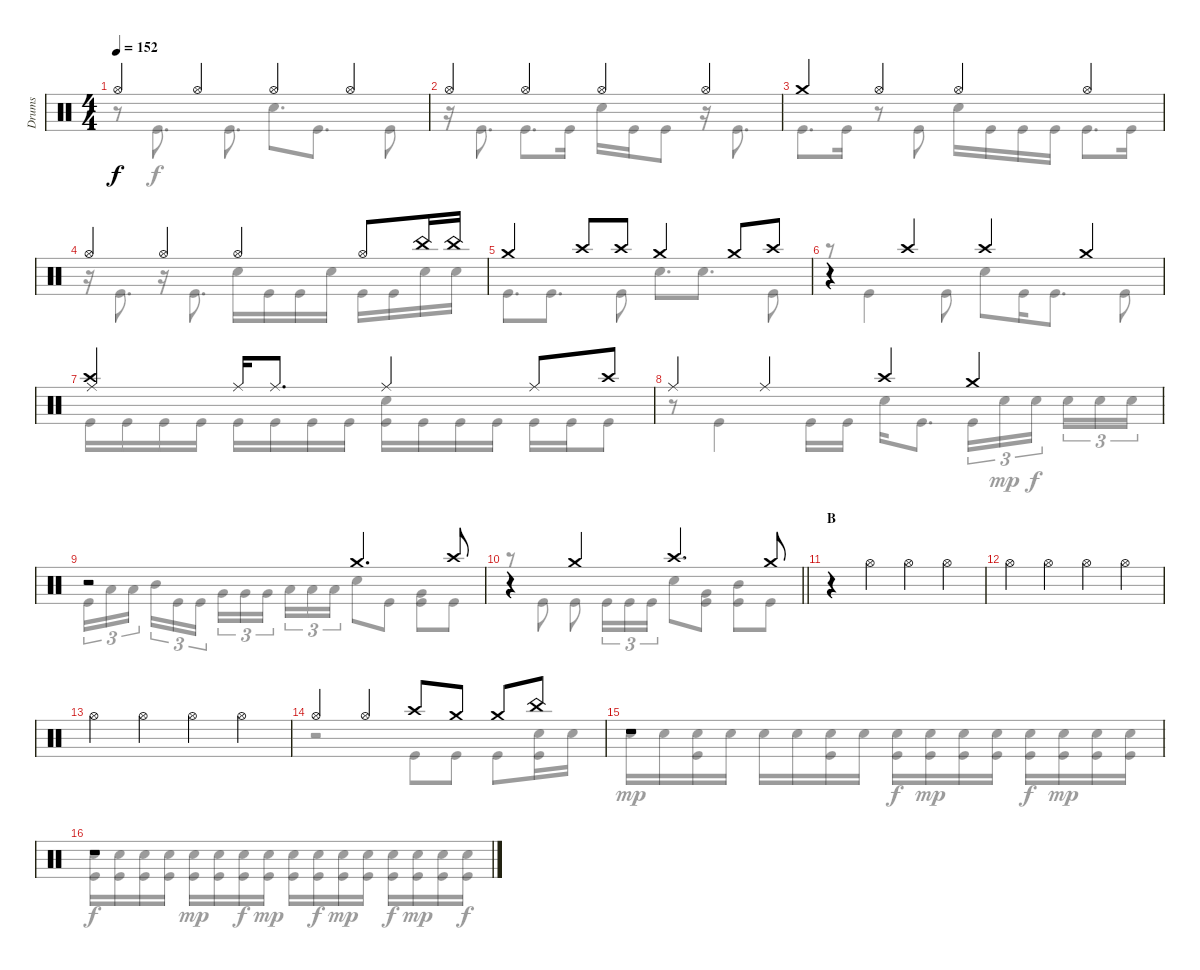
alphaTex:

\track ("Drums" "Drums") {instrument percussion}
\staff {score}
\articulation defaults
\voice
\ts (4 4)
\tempo 152
\clef neutral
\ks c "Hi-Hat (open)".4{dy f} "Hi-Hat (open)".4 "Hi-Hat (open)".4 "Hi-Hat (open)".4
|
"Hi-Hat (open)".4 "Hi-Hat (open)".4 "Hi-Hat (open)".4 "Hi-Hat (open)".4 |
"Crash medium (hit)".4 "Hi-Hat (open)".4 "Hi-Hat (open)".4 "Hi-Hat (open)".4 |
"Hi-Hat (open)".4 "Hi-Hat (open)".4 "Hi-Hat (open)".4 "Hi-Hat (open)".8 "China (hit)".16 "China (hit)".16 |
"Crash medium (hit)".4 "Crash high (hit)".8 "Crash high (hit)".8 "Crash medium (hit)".4 "Crash medium (hit)".8 "Crash high (hit)".8 |
r.4 "Crash high (hit)".4 "Crash high (hit)".4 "Crash medium (hit)".4 |
("Ride (middle)" "Crash high (hit)").4 "Ride (middle)".16 "Ride (middle)".8{d} "Ride (middle)".4 "Ride (middle)".8 "Crash high (hit)".8 |
"Ride (middle)".4 "Ride (middle)".4 "Crash high (hit)".4 "Crash medium (hit)".4 |
r.2 "Crash medium (hit)".4{d} "Crash high (hit)".8 |
\barLineRight lightlight
r.4 "Crash medium (hit)".4 "Crash high (hit)".4{d} "Crash medium (hit)".8 |
\section ("" "B")
r.4 "Hi-Hat (open)".4 "Hi-Hat (open)".4 "Hi-Hat (open)".4 |
"Hi-Hat (open)".4 "Hi-Hat (open)".4 "Hi-Hat (open)".4 "Hi-Hat (open)".4 |
"Hi-Hat (open)".4 "Hi-Hat (open)".4 "Hi-Hat (open)".4 "Hi-Hat (open)".4 |
"Hi-Hat (open)".4 "Hi-Hat (open)".4 "Crash high (hit)".8 "Crash medium (hit)".8 "Crash medium (hit)".8 "China (hit)".8 |
r.1 |
r.1
\voice
\clef neutral
\ottava regular
\simile none
\ks c
r.8{dy f} "Kick (hit)".8{d} "Kick (hit)".8{d} "Snare (hit) 2".8{d} "Kick (hit)".8{d} "Kick (hit)".8 |
r.16 "Kick (hit)".8{d} "Kick (hit)".8{d} "Kick (hit)".16 "Snare (hit) 2".16 "Kick (hit)".16 "Kick (hit)".8 r.16 "Kick (hit)".8{d} |
"Kick (hit)".8{d} "Kick (hit)".16 r.8 "Kick (hit)".8 "Snare (hit) 2".16 "Kick (hit)".16 "Kick (hit)".16 "Kick (hit)".16 "Kick (hit)".8{d} "Kick (hit)".16 |
r.16 "Kick (hit)".8{d} r.16 "Kick (hit)".8{d} "Snare (hit) 2".16 "Kick (hit)".16 "Kick (hit)".16 "Snare (hit) 2".16 "Kick (hit)".16 "Kick (hit)".16 "Snare (hit) 2".16 "Snare (hit) 2".16 |
"Kick (hit)".8{d} "Kick (hit)".8{d} "Kick (hit)".8 "Snare (hit) 2".8{d} "Snare (hit) 2".8{d} "Kick (hit)".8 |
r.8 "Kick (hit)".4 "Kick (hit)".8 "Snare (hit) 2".8 "Kick (hit)".16 "Kick (hit)".8{d} "Kick (hit)".8 |
"Kick (hit)".16 "Kick (hit)".16 "Kick (hit)".16 "Kick (hit)".16 "Kick (hit)".16 "Kick (hit)".16 "Kick (hit)".16 "Kick (hit)".16 ("Snare (hit) 2" "Kick (hit)").16 "Kick (hit)".16 "Kick (hit)".16 "Kick (hit)".16 "Kick (hit)".16 "Kick (hit)".16 "Kick (hit)".8 |
r.8 "Kick (hit)".4 "Kick (hit)".16 "Kick (hit)".16 "Snare (hit) 2".16 "Kick (hit)".8{d} "Kick (hit)".16{tu (3 2)} "Snare (hit) 2".16{tu (3 2) dy mp} "Snare (hit) 2".16{tu (3 2) dy f beam splitsecondary} "Snare (hit) 2".16{tu (3 2)} "Snare (hit) 2".16{tu (3 2)} "Snare (hit) 2".16{tu (3 2)} |
"Kick (hit)".16{tu (3 2)} "Low Tom (hit)".16{tu (3 2)} "Low Tom (hit)".16{tu (3 2) beam splitsecondary} "Mid Tom (hit)".16{tu (3 2)} "Kick (hit)".16{tu (3 2)} "Kick (hit)".16{tu (3 2)} "Very Low Tom (hit)".16{tu (3 2)} "Very Low Tom (hit)".16{tu (3 2)} "Very Low Tom (hit)".16{tu (3 2) beam splitsecondary} "Low Tom (hit)".16{tu (3 2)} "Low Tom (hit)".16{tu (3 2)} "Low Tom (hit)".16{tu (3 2)} "Snare (hit) 2".8 "Kick (hit)".8 ("Very Low Tom (hit)" "Kick (hit)").8 "Kick (hit)".8 |
\barLineRight lightlight
r.8 "Kick (hit)".8 "Kick (hit)".8 "Kick (hit)".16{tu (3 2)} "Kick (hit)".16{tu (3 2)} "Kick (hit)".16{tu (3 2)} "Snare (hit) 2".8 ("Very Low Tom (hit)" "Kick (hit)").8 ("Mid Tom (hit)" "Kick (hit)").8 "Kick (hit)".8 |
|
|
|
r.2 "Kick (hit)".8 "Kick (hit)".8 "Kick (hit)".8 ("Snare (hit) 2" "Kick (hit)").16 "Snare (hit) 2".16 |
"Snare (hit) 2".16{dy mp} "Snare (hit) 2".16 ("Snare (hit) 2" "Kick (hit)").16 "Snare (hit) 2".16 "Snare (hit) 2".16 "Snare (hit) 2".16 ("Snare (hit) 2" "Kick (hit)").16 "Snare (hit) 2".16 ("Snare (hit) 2" "Kick (hit)").16{dy f} ("Snare (hit) 2" "Kick (hit)").16{dy mp} ("Snare (hit) 2" "Kick (hit)").16 ("Snare (hit) 2" "Kick (hit)").16 ("Snare (hit) 2" "Kick (hit)").16{dy f} ("Snare (hit) 2" "Kick (hit)").16{dy mp} ("Snare (hit) 2" "Kick (hit)").16 ("Snare (hit) 2" "Kick (hit)").16 |
("Snare (hit) 2" "Kick (hit)").16{dy f} ("Snare (hit) 2" "Kick (hit)").16 ("Snare (hit) 2" "Kick (hit)").16 ("Snare (hit) 2" "Kick (hit)").16 ("Snare (hit) 2" "Kick (hit)").16{dy mp} ("Snare (hit) 2" "Kick (hit)").16 ("Snare (hit) 2" "Kick (hit)").16{dy f} ("Snare (hit) 2" "Kick (hit)").16{dy mp} ("Snare (hit) 2" "Kick (hit)").16 ("Snare (hit) 2" "Kick (hit)").16{dy f} ("Snare (hit) 2" "Kick (hit)").16{dy mp} ("Snare (hit) 2" "Kick (hit)").16 ("Snare (hit) 2" "Kick (hit)").16{dy f} ("Snare (hit) 2" "Kick (hit)").16{dy mp} ("Snare (hit) 2" "Kick (hit)").16 ("Snare (hit) 2" "Kick (hit)").16{dy f}
